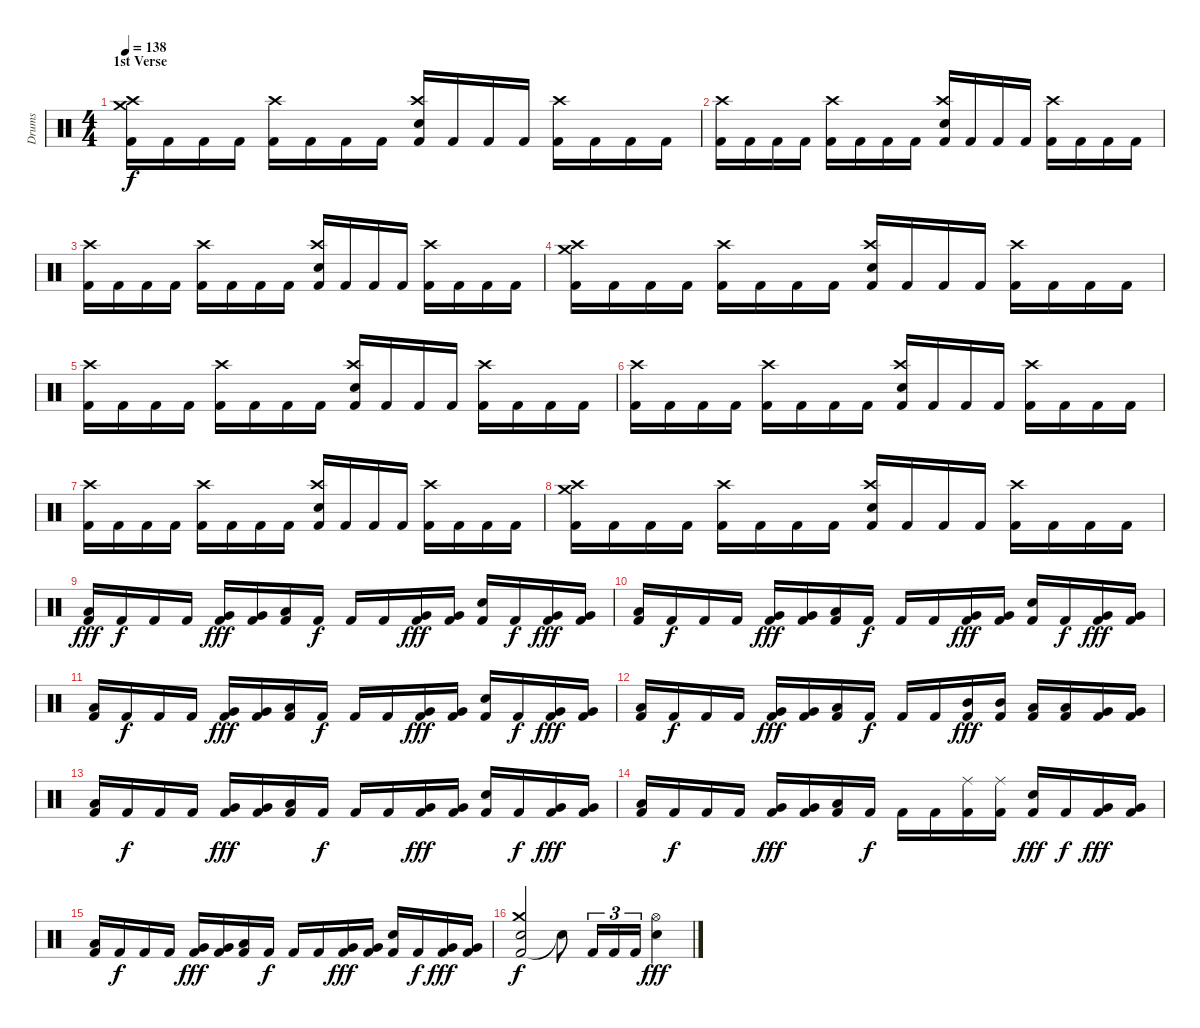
\track ("Drums" "Drums") {instrument percussion}
\staff {score}
\articulation defaults
\ts (4 4)
\section ("" "1st Verse")
\tempo 138
\clef neutral
\ks c
("Kick (hit) 2" "Crash high (hit)" "Crash medium (hit)").16{dy f} "Kick (hit) 2".16 "Kick (hit) 2".16 "Kick (hit) 2".16 ("Kick (hit) 2" "Crash high (hit)").16 "Kick (hit) 2".16 "Kick (hit) 2".16 "Kick (hit) 2".16 ("Kick (hit) 2" "Electric Snare (hit)" "Crash high (hit)").16 "Kick (hit) 2".16 "Kick (hit) 2".16 "Kick (hit) 2".16 ("Kick (hit) 2" "Crash high (hit)").16 "Kick (hit) 2".16 "Kick (hit) 2".16 "Kick (hit) 2".16 |
("Kick (hit) 2" "Crash high (hit)").16 "Kick (hit) 2".16 "Kick (hit) 2".16 "Kick (hit) 2".16 ("Kick (hit) 2" "Crash high (hit)").16 "Kick (hit) 2".16 "Kick (hit) 2".16 "Kick (hit) 2".16 ("Kick (hit) 2" "Electric Snare (hit)" "Crash high (hit)").16 "Kick (hit) 2".16 "Kick (hit) 2".16 "Kick (hit) 2".16 ("Kick (hit) 2" "Crash high (hit)").16 "Kick (hit) 2".16 "Kick (hit) 2".16 "Kick (hit) 2".16 |
("Kick (hit) 2" "Crash high (hit)").16 "Kick (hit) 2".16 "Kick (hit) 2".16 "Kick (hit) 2".16 ("Kick (hit) 2" "Crash high (hit)").16 "Kick (hit) 2".16 "Kick (hit) 2".16 "Kick (hit) 2".16 ("Kick (hit) 2" "Electric Snare (hit)" "Crash high (hit)").16 "Kick (hit) 2".16 "Kick (hit) 2".16 "Kick (hit) 2".16 ("Kick (hit) 2" "Crash high (hit)").16 "Kick (hit) 2".16 "Kick (hit) 2".16 "Kick (hit) 2".16 |
("Kick (hit) 2" "Crash high (hit)" "Crash medium (hit)").16 "Kick (hit) 2".16 "Kick (hit) 2".16 "Kick (hit) 2".16 ("Kick (hit) 2" "Crash high (hit)").16 "Kick (hit) 2".16 "Kick (hit) 2".16 "Kick (hit) 2".16 ("Kick (hit) 2" "Electric Snare (hit)" "Crash high (hit)").16 "Kick (hit) 2".16 "Kick (hit) 2".16 "Kick (hit) 2".16 ("Kick (hit) 2" "Crash high (hit)").16 "Kick (hit) 2".16 "Kick (hit) 2".16 "Kick (hit) 2".16 |
("Kick (hit) 2" "Crash high (hit)").16 "Kick (hit) 2".16 "Kick (hit) 2".16 "Kick (hit) 2".16 ("Kick (hit) 2" "Crash high (hit)").16 "Kick (hit) 2".16 "Kick (hit) 2".16 "Kick (hit) 2".16 ("Kick (hit) 2" "Electric Snare (hit)" "Crash high (hit)").16 "Kick (hit) 2".16 "Kick (hit) 2".16 "Kick (hit) 2".16 ("Kick (hit) 2" "Crash high (hit)").16 "Kick (hit) 2".16 "Kick (hit) 2".16 "Kick (hit) 2".16 |
("Kick (hit) 2" "Crash high (hit)").16 "Kick (hit) 2".16 "Kick (hit) 2".16 "Kick (hit) 2".16 ("Kick (hit) 2" "Crash high (hit)").16 "Kick (hit) 2".16 "Kick (hit) 2".16 "Kick (hit) 2".16 ("Kick (hit) 2" "Electric Snare (hit)" "Crash high (hit)").16 "Kick (hit) 2".16 "Kick (hit) 2".16 "Kick (hit) 2".16 ("Kick (hit) 2" "Crash high (hit)").16 "Kick (hit) 2".16 "Kick (hit) 2".16 "Kick (hit) 2".16 |
("Kick (hit) 2" "Crash high (hit)").16 "Kick (hit) 2".16 "Kick (hit) 2".16 "Kick (hit) 2".16 ("Kick (hit) 2" "Crash high (hit)").16 "Kick (hit) 2".16 "Kick (hit) 2".16 "Kick (hit) 2".16 ("Kick (hit) 2" "Electric Snare (hit)" "Crash high (hit)").16 "Kick (hit) 2".16 "Kick (hit) 2".16 "Kick (hit) 2".16 ("Kick (hit) 2" "Crash high (hit)").16 "Kick (hit) 2".16 "Kick (hit) 2".16 "Kick (hit) 2".16 |
("Kick (hit) 2" "Crash high (hit)" "Crash medium (hit)").16 "Kick (hit) 2".16 "Kick (hit) 2".16 "Kick (hit) 2".16 ("Kick (hit) 2" "Crash high (hit)").16 "Kick (hit) 2".16 "Kick (hit) 2".16 "Kick (hit) 2".16 ("Kick (hit) 2" "Electric Snare (hit)" "Crash high (hit)").16 "Kick (hit) 2".16 "Kick (hit) 2".16 "Kick (hit) 2".16 ("Kick (hit) 2" "Crash high (hit)").16 "Kick (hit) 2".16 "Kick (hit) 2".16 "Kick (hit) 2".16 |
("Kick (hit) 2" "Low Tom (hit)").16{dy fff} "Kick (hit) 2".16{dy f} "Kick (hit) 2".16 "Kick (hit) 2".16 ("Kick (hit) 2" "Very Low Tom (hit)").16{dy fff} ("Kick (hit) 2" "Very Low Tom (hit)").16 ("Kick (hit) 2" "Low Tom (hit)").16 "Kick (hit) 2".16{dy f} "Kick (hit) 2".16 "Kick (hit) 2".16 ("Kick (hit) 2" "Very Low Tom (hit)").16{dy fff} ("Kick (hit) 2" "Very Low Tom (hit)").16 ("Kick (hit) 2" "Electric Snare (hit)").16 "Kick (hit) 2".16{dy f} ("Kick (hit) 2" "Very Low Tom (hit)").16{dy fff} ("Kick (hit) 2" "Very Low Tom (hit)").16 |
("Kick (hit) 2" "Low Tom (hit)").16 "Kick (hit) 2".16{dy f} "Kick (hit) 2".16 "Kick (hit) 2".16 ("Kick (hit) 2" "Very Low Tom (hit)").16{dy fff} ("Kick (hit) 2" "Very Low Tom (hit)").16 ("Kick (hit) 2" "Low Tom (hit)").16 "Kick (hit) 2".16{dy f} "Kick (hit) 2".16 "Kick (hit) 2".16 ("Kick (hit) 2" "Very Low Tom (hit)").16{dy fff} ("Kick (hit) 2" "Very Low Tom (hit)").16 ("Kick (hit) 2" "Electric Snare (hit)").16 "Kick (hit) 2".16{dy f} ("Kick (hit) 2" "Very Low Tom (hit)").16{dy fff} ("Kick (hit) 2" "Very Low Tom (hit)").16 |
("Kick (hit) 2" "Low Tom (hit)").16 "Kick (hit) 2".16{dy f} "Kick (hit) 2".16 "Kick (hit) 2".16 ("Kick (hit) 2" "Very Low Tom (hit)").16{dy fff} ("Kick (hit) 2" "Very Low Tom (hit)").16 ("Kick (hit) 2" "Low Tom (hit)").16 "Kick (hit) 2".16{dy f} "Kick (hit) 2".16 "Kick (hit) 2".16 ("Kick (hit) 2" "Very Low Tom (hit)").16{dy fff} ("Kick (hit) 2" "Very Low Tom (hit)").16 ("Kick (hit) 2" "Electric Snare (hit)").16 "Kick (hit) 2".16{dy f} ("Kick (hit) 2" "Very Low Tom (hit)").16{dy fff} ("Kick (hit) 2" "Very Low Tom (hit)").16 |
("Kick (hit) 2" "Low Tom (hit)").16 "Kick (hit) 2".16{dy f} "Kick (hit) 2".16 "Kick (hit) 2".16 ("Kick (hit) 2" "Very Low Tom (hit)").16{dy fff} ("Kick (hit) 2" "Very Low Tom (hit)").16 ("Kick (hit) 2" "Low Tom (hit)").16 "Kick (hit) 2".16{dy f} "Kick (hit) 2".16 "Kick (hit) 2".16 ("Kick (hit) 2" "Mid Tom (hit)").16{dy fff} ("Kick (hit) 2" "Mid Tom (hit)").16 ("Kick (hit) 2" "Low Tom (hit)").16 ("Kick (hit) 2" "Low Tom (hit)").16 ("Kick (hit) 2" "Very Low Tom (hit)").16 ("Kick (hit) 2" "Very Low Tom (hit)").16 |
("Kick (hit) 2" "Low Tom (hit)").16 "Kick (hit) 2".16{dy f} "Kick (hit) 2".16 "Kick (hit) 2".16 ("Kick (hit) 2" "Very Low Tom (hit)").16{dy fff} ("Kick (hit) 2" "Very Low Tom (hit)").16 ("Kick (hit) 2" "Low Tom (hit)").16 "Kick (hit) 2".16{dy f} "Kick (hit) 2".16 "Kick (hit) 2".16 ("Kick (hit) 2" "Very Low Tom (hit)").16{dy fff} ("Kick (hit) 2" "Very Low Tom (hit)").16 ("Kick (hit) 2" "Electric Snare (hit)").16 "Kick (hit) 2".16{dy f} ("Kick (hit) 2" "Very Low Tom (hit)").16{dy fff} ("Kick (hit) 2" "Very Low Tom (hit)").16 |
("Kick (hit) 2" "Low Tom (hit)").16 "Kick (hit) 2".16{dy f} "Kick (hit) 2".16 "Kick (hit) 2".16 ("Kick (hit) 2" "Very Low Tom (hit)").16{dy fff} ("Kick (hit) 2" "Very Low Tom (hit)").16 ("Kick (hit) 2" "Low Tom (hit)").16 "Kick (hit) 2".16{dy f} "Kick (hit) 2".16 "Kick (hit) 2".16 ("Kick (hit) 2" "Ride (middle)").16 ("Kick (hit) 2" "Ride (middle)").16 ("Kick (hit) 2" "Electric Snare (hit)").16{dy fff} "Kick (hit) 2".16{dy f} ("Kick (hit) 2" "Very Low Tom (hit)").16{dy fff} ("Kick (hit) 2" "Very Low Tom (hit)").16 |
("Kick (hit) 2" "Low Tom (hit)").16 "Kick (hit) 2".16{dy f} "Kick (hit) 2".16 "Kick (hit) 2".16 ("Kick (hit) 2" "Very Low Tom (hit)").16{dy fff} ("Kick (hit) 2" "Very Low Tom (hit)").16 ("Kick (hit) 2" "Low Tom (hit)").16 "Kick (hit) 2".16{dy f} "Kick (hit) 2".16 "Kick (hit) 2".16 ("Kick (hit) 2" "Very Low Tom (hit)").16{dy fff} ("Kick (hit) 2" "Very Low Tom (hit)").16 ("Kick (hit) 2" "Electric Snare (hit)").16 "Kick (hit) 2".16{dy f} ("Kick (hit) 2" "Very Low Tom (hit)").16{dy fff} ("Kick (hit) 2" "Very Low Tom (hit)").16 |
("Kick (hit) 2" "Electric Snare (hit)" "Crash medium (hit)").2{dy f} "Snare (hit)"{t}.8 "Kick (hit) 2".16{tu (3 2)} "Kick (hit) 2".16{tu (3 2)} "Kick (hit) 2".16{tu (3 2)} ("Electric Snare (hit)" "Hi-Hat (open)").4{dy fff}
